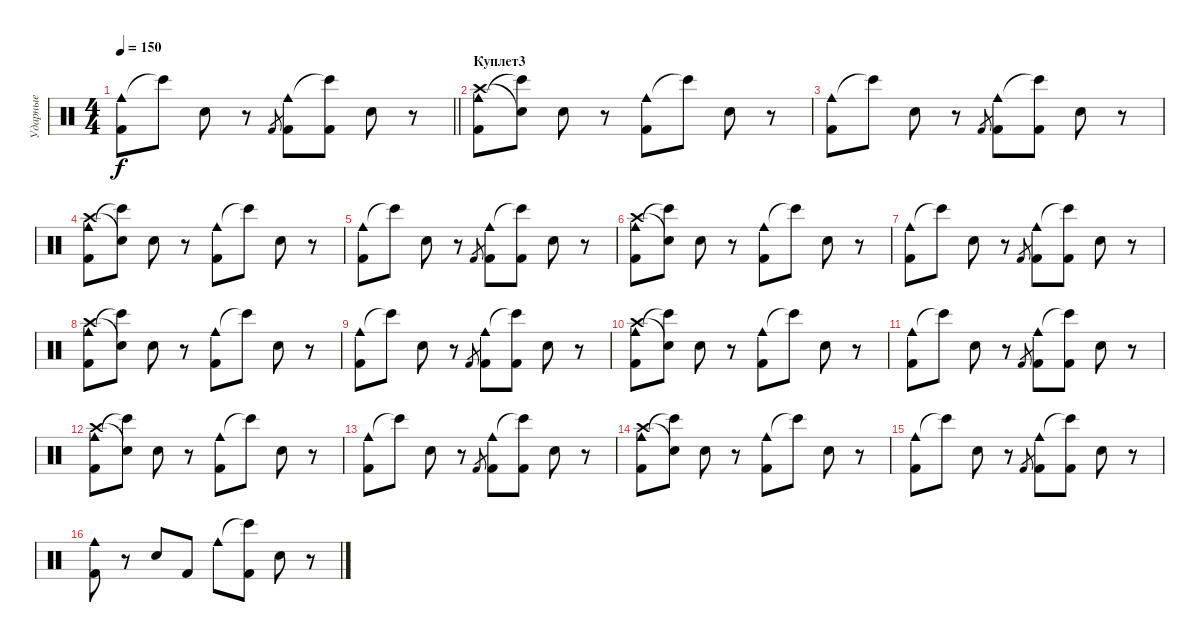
\track ("Ударные" "Ударные") {instrument percussion}
\staff {score}
\articulation defaults
\ts (4 4)
\tempo 150
\clef neutral
\barLineRight lightlight
\ks c
("Cowbell medium (hit)" "Kick (hit) 2").8{dy f} "Bongo High (hit)"{t}.8 "Snare (hit) 2".8 r.8 "Kick (hit) 2".8{gr} ("Cowbell medium (hit)" "Kick (hit) 2").8 ("Bongo High (hit)"{t} "Kick (hit) 2").8 "Snare (hit) 2".8 r.8 |
\section ("" "Куплет3")
("Cowbell medium (hit)" "Crash high (hit)" "Kick (hit) 2").8 ("Bongo High (hit)"{t} "Snare (hit)"{t}).8 "Snare (hit) 2".8 r.8 ("Cowbell medium (hit)" "Kick (hit) 2").8 "Bongo High (hit)"{t}.8 "Snare (hit) 2".8 r.8 |
("Cowbell medium (hit)" "Kick (hit) 2").8 "Bongo High (hit)"{t}.8 "Snare (hit) 2".8 r.8 "Kick (hit) 2".8{gr} ("Cowbell medium (hit)" "Kick (hit) 2").8 ("Bongo High (hit)"{t} "Kick (hit) 2").8 "Snare (hit) 2".8 r.8 |
("Cowbell medium (hit)" "Crash high (hit)" "Kick (hit) 2").8 ("Bongo High (hit)"{t} "Snare (hit)"{t}).8 "Snare (hit) 2".8 r.8 ("Cowbell medium (hit)" "Kick (hit) 2").8 "Bongo High (hit)"{t}.8 "Snare (hit) 2".8 r.8 |
("Cowbell medium (hit)" "Kick (hit) 2").8 "Bongo High (hit)"{t}.8 "Snare (hit) 2".8 r.8 "Kick (hit) 2".8{gr} ("Cowbell medium (hit)" "Kick (hit) 2").8 ("Bongo High (hit)"{t} "Kick (hit) 2").8 "Snare (hit) 2".8 r.8 |
("Cowbell medium (hit)" "Crash high (hit)" "Kick (hit) 2").8 ("Bongo High (hit)"{t} "Snare (hit)"{t}).8 "Snare (hit) 2".8 r.8 ("Cowbell medium (hit)" "Kick (hit) 2").8 "Bongo High (hit)"{t}.8 "Snare (hit) 2".8 r.8 |
("Cowbell medium (hit)" "Kick (hit) 2").8 "Bongo High (hit)"{t}.8 "Snare (hit) 2".8 r.8 "Kick (hit) 2".8{gr} ("Cowbell medium (hit)" "Kick (hit) 2").8 ("Bongo High (hit)"{t} "Kick (hit) 2").8 "Snare (hit) 2".8 r.8 |
("Cowbell medium (hit)" "Crash high (hit)" "Kick (hit) 2").8 ("Bongo High (hit)"{t} "Snare (hit)"{t}).8 "Snare (hit) 2".8 r.8 ("Cowbell medium (hit)" "Kick (hit) 2").8 "Bongo High (hit)"{t}.8 "Snare (hit) 2".8 r.8 |
("Cowbell medium (hit)" "Kick (hit) 2").8 "Bongo High (hit)"{t}.8 "Snare (hit) 2".8 r.8 "Kick (hit) 2".8{gr} ("Cowbell medium (hit)" "Kick (hit) 2").8 ("Bongo High (hit)"{t} "Kick (hit) 2").8 "Snare (hit) 2".8 r.8 |
("Cowbell medium (hit)" "Crash high (hit)" "Kick (hit) 2").8 ("Bongo High (hit)"{t} "Snare (hit)"{t}).8 "Snare (hit) 2".8 r.8 ("Cowbell medium (hit)" "Kick (hit) 2").8 "Bongo High (hit)"{t}.8 "Snare (hit) 2".8 r.8 |
("Cowbell medium (hit)" "Kick (hit) 2").8 "Bongo High (hit)"{t}.8 "Snare (hit) 2".8 r.8 "Kick (hit) 2".8{gr} ("Cowbell medium (hit)" "Kick (hit) 2").8 ("Bongo High (hit)"{t} "Kick (hit) 2").8 "Snare (hit) 2".8 r.8 |
("Cowbell medium (hit)" "Crash high (hit)" "Kick (hit) 2").8 ("Bongo High (hit)"{t} "Snare (hit)"{t}).8 "Snare (hit) 2".8 r.8 ("Cowbell medium (hit)" "Kick (hit) 2").8 "Bongo High (hit)"{t}.8 "Snare (hit) 2".8 r.8 |
("Cowbell medium (hit)" "Kick (hit) 2").8 "Bongo High (hit)"{t}.8 "Snare (hit) 2".8 r.8 "Kick (hit) 2".8{gr} ("Cowbell medium (hit)" "Kick (hit) 2").8 ("Bongo High (hit)"{t} "Kick (hit) 2").8 "Snare (hit) 2".8 r.8 |
("Cowbell medium (hit)" "Crash high (hit)" "Kick (hit) 2").8 ("Bongo High (hit)"{t} "Snare (hit)"{t}).8 "Snare (hit) 2".8 r.8 ("Cowbell medium (hit)" "Kick (hit) 2").8 "Bongo High (hit)"{t}.8 "Snare (hit) 2".8 r.8 |
("Cowbell medium (hit)" "Kick (hit) 2").8 "Bongo High (hit)"{t}.8 "Snare (hit) 2".8 r.8 "Kick (hit) 2".8{gr} ("Cowbell medium (hit)" "Kick (hit) 2").8 ("Bongo High (hit)"{t} "Kick (hit) 2").8 "Snare (hit) 2".8 r.8 |
("Cowbell medium (hit)" "Kick (hit) 2").8 r.8 "Snare (hit) 2".8 "Kick (hit) 2".8 "Cowbell medium (hit)".8 ("Bongo High (hit)"{t} "Kick (hit) 2").8 "Snare (hit) 2".8 r.8
